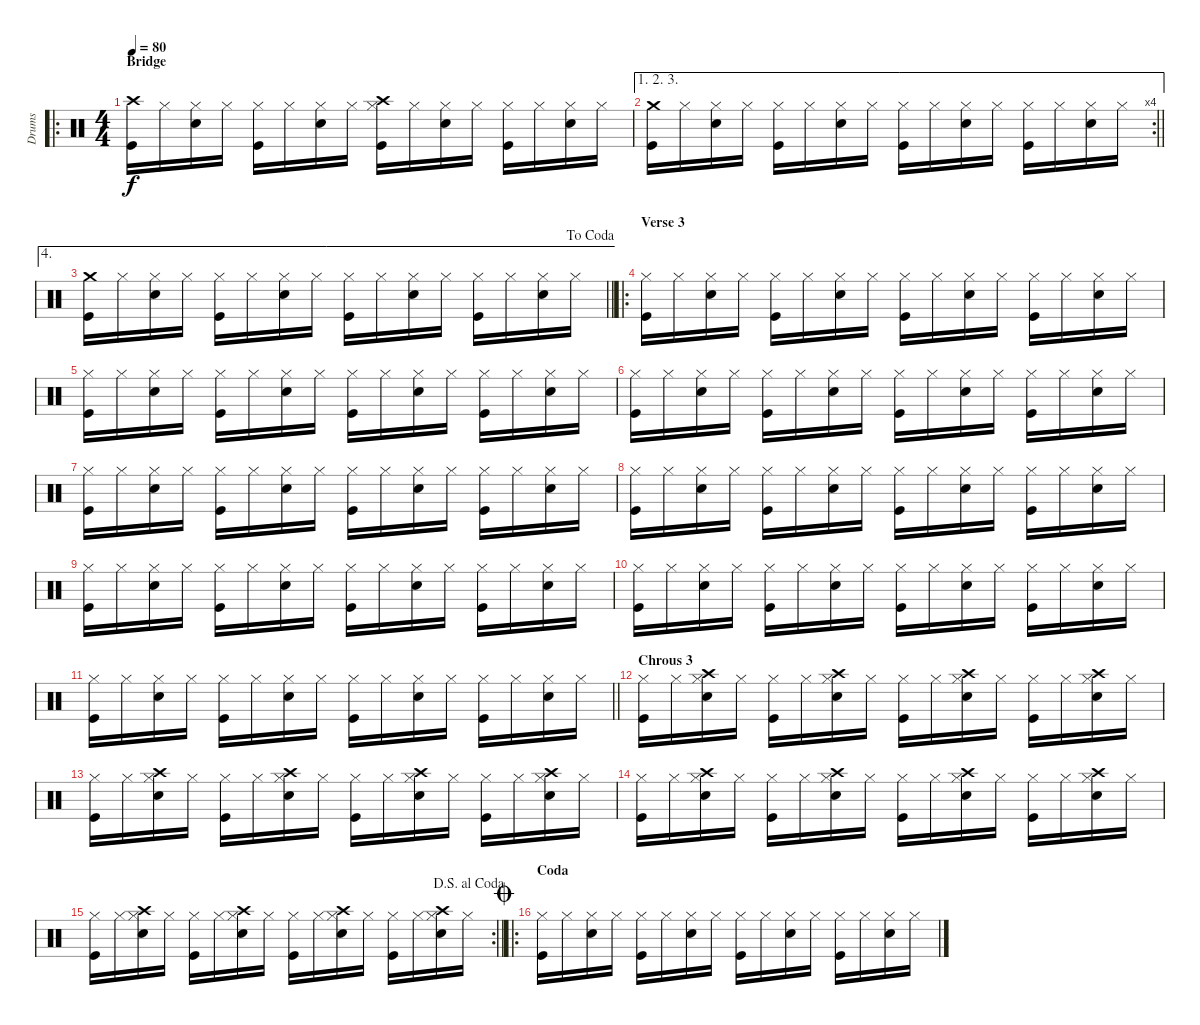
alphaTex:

\track ("Drums" "Drums") {instrument percussion}
\staff {score}
\articulation defaults
\ro
\ts (4 4)
\section ("" "Bridge")
\tempo 80
\clef neutral
\ks c
("Kick (hit)" "Crash high (hit)").16{dy f} "Hi-Hat (closed)".16 ("Hi-Hat (closed)" "Snare (hit) 2").16 "Hi-Hat (closed)".16 ("Hi-Hat (closed)" "Kick (hit)").16 "Hi-Hat (closed)".16 ("Hi-Hat (closed)" "Snare (hit) 2").16 "Hi-Hat (closed)".16 ("Hi-Hat (closed)" "Crash high (hit)" "Kick (hit)").16 "Hi-Hat (closed)".16 ("Hi-Hat (closed)" "Snare (hit) 2").16 "Hi-Hat (closed)".16 ("Hi-Hat (closed)" "Kick (hit)").16 "Hi-Hat (closed)".16 ("Hi-Hat (closed)" "Snare (hit) 2").16 "Hi-Hat (closed)".16 |
\ae (1 2 3)
\rc 4
\barLineRight lightlight
("Kick (hit)" "Crash medium (hit)").16 "Hi-Hat (closed)".16 ("Hi-Hat (closed)" "Snare (hit) 2").16 "Hi-Hat (closed)".16 ("Hi-Hat (closed)" "Kick (hit)").16 "Hi-Hat (closed)".16 ("Hi-Hat (closed)" "Snare (hit) 2").16 "Hi-Hat (closed)".16 ("Hi-Hat (closed)" "Kick (hit)").16 "Hi-Hat (closed)".16 ("Hi-Hat (closed)" "Snare (hit) 2").16 "Hi-Hat (closed)".16 ("Hi-Hat (closed)" "Kick (hit)").16 "Hi-Hat (closed)".16 ("Hi-Hat (closed)" "Snare (hit) 2").16 "Hi-Hat (closed)".16 |
\ae 4
\jump dacoda
\barLineRight lightlight
("Kick (hit)" "Crash medium (hit)").16 "Hi-Hat (closed)".16 ("Hi-Hat (closed)" "Snare (hit) 2").16 "Hi-Hat (closed)".16 ("Hi-Hat (closed)" "Kick (hit)").16 "Hi-Hat (closed)".16 ("Hi-Hat (closed)" "Snare (hit) 2").16 "Hi-Hat (closed)".16 ("Hi-Hat (closed)" "Kick (hit)").16 "Hi-Hat (closed)".16 ("Hi-Hat (closed)" "Snare (hit) 2").16 "Hi-Hat (closed)".16 ("Hi-Hat (closed)" "Kick (hit)").16 "Hi-Hat (closed)".16 ("Hi-Hat (closed)" "Snare (hit) 2").16 "Hi-Hat (closed)".16 |
\ro
\section ("" "Verse 3")
("Kick (hit)" "Hi-Hat (closed)").16 "Hi-Hat (closed)".16 ("Hi-Hat (closed)" "Snare (hit) 2").16 "Hi-Hat (closed)".16 ("Hi-Hat (closed)" "Kick (hit)").16 "Hi-Hat (closed)".16 ("Hi-Hat (closed)" "Snare (hit) 2").16 "Hi-Hat (closed)".16 ("Hi-Hat (closed)" "Kick (hit)").16 "Hi-Hat (closed)".16 ("Hi-Hat (closed)" "Snare (hit) 2").16 "Hi-Hat (closed)".16 ("Hi-Hat (closed)" "Kick (hit)").16 "Hi-Hat (closed)".16 ("Hi-Hat (closed)" "Snare (hit) 2").16 "Hi-Hat (closed)".16 |
("Kick (hit)" "Hi-Hat (closed)").16 "Hi-Hat (closed)".16 ("Hi-Hat (closed)" "Snare (hit) 2").16 "Hi-Hat (closed)".16 ("Hi-Hat (closed)" "Kick (hit)").16 "Hi-Hat (closed)".16 ("Hi-Hat (closed)" "Snare (hit) 2").16 "Hi-Hat (closed)".16 ("Hi-Hat (closed)" "Kick (hit)").16 "Hi-Hat (closed)".16 ("Hi-Hat (closed)" "Snare (hit) 2").16 "Hi-Hat (closed)".16 ("Hi-Hat (closed)" "Kick (hit)").16 "Hi-Hat (closed)".16 ("Hi-Hat (closed)" "Snare (hit) 2").16 "Hi-Hat (closed)".16 |
("Kick (hit)" "Hi-Hat (closed)").16 "Hi-Hat (closed)".16 ("Hi-Hat (closed)" "Snare (hit) 2").16 "Hi-Hat (closed)".16 ("Hi-Hat (closed)" "Kick (hit)").16 "Hi-Hat (closed)".16 ("Hi-Hat (closed)" "Snare (hit) 2").16 "Hi-Hat (closed)".16 ("Hi-Hat (closed)" "Kick (hit)").16 "Hi-Hat (closed)".16 ("Hi-Hat (closed)" "Snare (hit) 2").16 "Hi-Hat (closed)".16 ("Hi-Hat (closed)" "Kick (hit)").16 "Hi-Hat (closed)".16 ("Hi-Hat (closed)" "Snare (hit) 2").16 "Hi-Hat (closed)".16 |
("Kick (hit)" "Hi-Hat (closed)").16 "Hi-Hat (closed)".16 ("Hi-Hat (closed)" "Snare (hit) 2").16 "Hi-Hat (closed)".16 ("Hi-Hat (closed)" "Kick (hit)").16 "Hi-Hat (closed)".16 ("Hi-Hat (closed)" "Snare (hit) 2").16 "Hi-Hat (closed)".16 ("Hi-Hat (closed)" "Kick (hit)").16 "Hi-Hat (closed)".16 ("Hi-Hat (closed)" "Snare (hit) 2").16 "Hi-Hat (closed)".16 ("Hi-Hat (closed)" "Kick (hit)").16 "Hi-Hat (closed)".16 ("Hi-Hat (closed)" "Snare (hit) 2").16 "Hi-Hat (closed)".16 |
("Kick (hit)" "Hi-Hat (closed)").16 "Hi-Hat (closed)".16 ("Hi-Hat (closed)" "Snare (hit) 2").16 "Hi-Hat (closed)".16 ("Hi-Hat (closed)" "Kick (hit)").16 "Hi-Hat (closed)".16 ("Hi-Hat (closed)" "Snare (hit) 2").16 "Hi-Hat (closed)".16 ("Hi-Hat (closed)" "Kick (hit)").16 "Hi-Hat (closed)".16 ("Hi-Hat (closed)" "Snare (hit) 2").16 "Hi-Hat (closed)".16 ("Hi-Hat (closed)" "Kick (hit)").16 "Hi-Hat (closed)".16 ("Hi-Hat (closed)" "Snare (hit) 2").16 "Hi-Hat (closed)".16 |
("Kick (hit)" "Hi-Hat (closed)").16 "Hi-Hat (closed)".16 ("Hi-Hat (closed)" "Snare (hit) 2").16 "Hi-Hat (closed)".16 ("Hi-Hat (closed)" "Kick (hit)").16 "Hi-Hat (closed)".16 ("Hi-Hat (closed)" "Snare (hit) 2").16 "Hi-Hat (closed)".16 ("Hi-Hat (closed)" "Kick (hit)").16 "Hi-Hat (closed)".16 ("Hi-Hat (closed)" "Snare (hit) 2").16 "Hi-Hat (closed)".16 ("Hi-Hat (closed)" "Kick (hit)").16 "Hi-Hat (closed)".16 ("Hi-Hat (closed)" "Snare (hit) 2").16 "Hi-Hat (closed)".16 |
("Kick (hit)" "Hi-Hat (closed)").16 "Hi-Hat (closed)".16 ("Hi-Hat (closed)" "Snare (hit) 2").16 "Hi-Hat (closed)".16 ("Hi-Hat (closed)" "Kick (hit)").16 "Hi-Hat (closed)".16 ("Hi-Hat (closed)" "Snare (hit) 2").16 "Hi-Hat (closed)".16 ("Hi-Hat (closed)" "Kick (hit)").16 "Hi-Hat (closed)".16 ("Hi-Hat (closed)" "Snare (hit) 2").16 "Hi-Hat (closed)".16 ("Hi-Hat (closed)" "Kick (hit)").16 "Hi-Hat (closed)".16 ("Hi-Hat (closed)" "Snare (hit) 2").16 "Hi-Hat (closed)".16 |
\barLineRight lightlight
("Kick (hit)" "Hi-Hat (closed)").16 "Hi-Hat (closed)".16 ("Hi-Hat (closed)" "Snare (hit) 2").16 "Hi-Hat (closed)".16 ("Hi-Hat (closed)" "Kick (hit)").16 "Hi-Hat (closed)".16 ("Hi-Hat (closed)" "Snare (hit) 2").16 "Hi-Hat (closed)".16 ("Hi-Hat (closed)" "Kick (hit)").16 "Hi-Hat (closed)".16 ("Hi-Hat (closed)" "Snare (hit) 2").16 "Hi-Hat (closed)".16 ("Hi-Hat (closed)" "Kick (hit)").16 "Hi-Hat (closed)".16 ("Hi-Hat (closed)" "Snare (hit) 2").16 "Hi-Hat (closed)".16 |
\section ("" "Chrous 3")
("Kick (hit)" "Hi-Hat (closed)").16 "Hi-Hat (closed)".16 ("Hi-Hat (closed)" "Snare (hit) 2" "Crash high (hit)").16 "Hi-Hat (closed)".16 ("Hi-Hat (closed)" "Kick (hit)").16 "Hi-Hat (closed)".16 ("Hi-Hat (closed)" "Snare (hit) 2" "Crash high (hit)").16 "Hi-Hat (closed)".16 ("Hi-Hat (closed)" "Kick (hit)").16 "Hi-Hat (closed)".16 ("Hi-Hat (closed)" "Snare (hit) 2" "Crash high (hit)").16 "Hi-Hat (closed)".16 ("Hi-Hat (closed)" "Kick (hit)").16 "Hi-Hat (closed)".16 ("Hi-Hat (closed)" "Snare (hit) 2" "Crash high (hit)").16 "Hi-Hat (closed)".16 |
("Kick (hit)" "Hi-Hat (closed)").16 "Hi-Hat (closed)".16 ("Hi-Hat (closed)" "Snare (hit) 2" "Crash high (hit)").16 "Hi-Hat (closed)".16 ("Hi-Hat (closed)" "Kick (hit)").16 "Hi-Hat (closed)".16 ("Hi-Hat (closed)" "Snare (hit) 2" "Crash high (hit)").16 "Hi-Hat (closed)".16 ("Hi-Hat (closed)" "Kick (hit)").16 "Hi-Hat (closed)".16 ("Hi-Hat (closed)" "Snare (hit) 2" "Crash high (hit)").16 "Hi-Hat (closed)".16 ("Hi-Hat (closed)" "Kick (hit)").16 "Hi-Hat (closed)".16 ("Hi-Hat (closed)" "Snare (hit) 2" "Crash high (hit)").16 "Hi-Hat (closed)".16 |
("Kick (hit)" "Hi-Hat (closed)").16 "Hi-Hat (closed)".16 ("Hi-Hat (closed)" "Snare (hit) 2" "Crash high (hit)").16 "Hi-Hat (closed)".16 ("Hi-Hat (closed)" "Kick (hit)").16 "Hi-Hat (closed)".16 ("Hi-Hat (closed)" "Snare (hit) 2" "Crash high (hit)").16 "Hi-Hat (closed)".16 ("Hi-Hat (closed)" "Kick (hit)").16 "Hi-Hat (closed)".16 ("Hi-Hat (closed)" "Snare (hit) 2" "Crash high (hit)").16 "Hi-Hat (closed)".16 ("Hi-Hat (closed)" "Kick (hit)").16 "Hi-Hat (closed)".16 ("Hi-Hat (closed)" "Snare (hit) 2" "Crash high (hit)").16 "Hi-Hat (closed)".16 |
\rc 2
\jump dalsegnoalcoda
\barLineRight lightlight
("Kick (hit)" "Hi-Hat (closed)").16 "Hi-Hat (closed)".16 ("Hi-Hat (closed)" "Snare (hit) 2" "Crash high (hit)").16 "Hi-Hat (closed)".16 ("Hi-Hat (closed)" "Kick (hit)").16 "Hi-Hat (closed)".16 ("Hi-Hat (closed)" "Snare (hit) 2" "Crash high (hit)").16 "Hi-Hat (closed)".16 ("Hi-Hat (closed)" "Kick (hit)").16 "Hi-Hat (closed)".16 ("Hi-Hat (closed)" "Snare (hit) 2" "Crash high (hit)").16 "Hi-Hat (closed)".16 ("Hi-Hat (closed)" "Kick (hit)").16 "Hi-Hat (closed)".16 ("Hi-Hat (closed)" "Snare (hit) 2" "Crash high (hit)").16 "Hi-Hat (closed)".16 |
\ro
\section ("" "Coda")
\jump coda
("Kick (hit)" "Hi-Hat (closed)").16 "Hi-Hat (closed)".16 ("Hi-Hat (closed)" "Snare (hit) 2").16 "Hi-Hat (closed)".16 ("Hi-Hat (closed)" "Kick (hit)").16 "Hi-Hat (closed)".16 ("Hi-Hat (closed)" "Snare (hit) 2").16 "Hi-Hat (closed)".16 ("Hi-Hat (closed)" "Kick (hit)").16 "Hi-Hat (closed)".16 ("Hi-Hat (closed)" "Snare (hit) 2").16 "Hi-Hat (closed)".16 ("Hi-Hat (closed)" "Kick (hit)").16 "Hi-Hat (closed)".16 ("Hi-Hat (closed)" "Snare (hit) 2").16 "Hi-Hat (closed)".16
